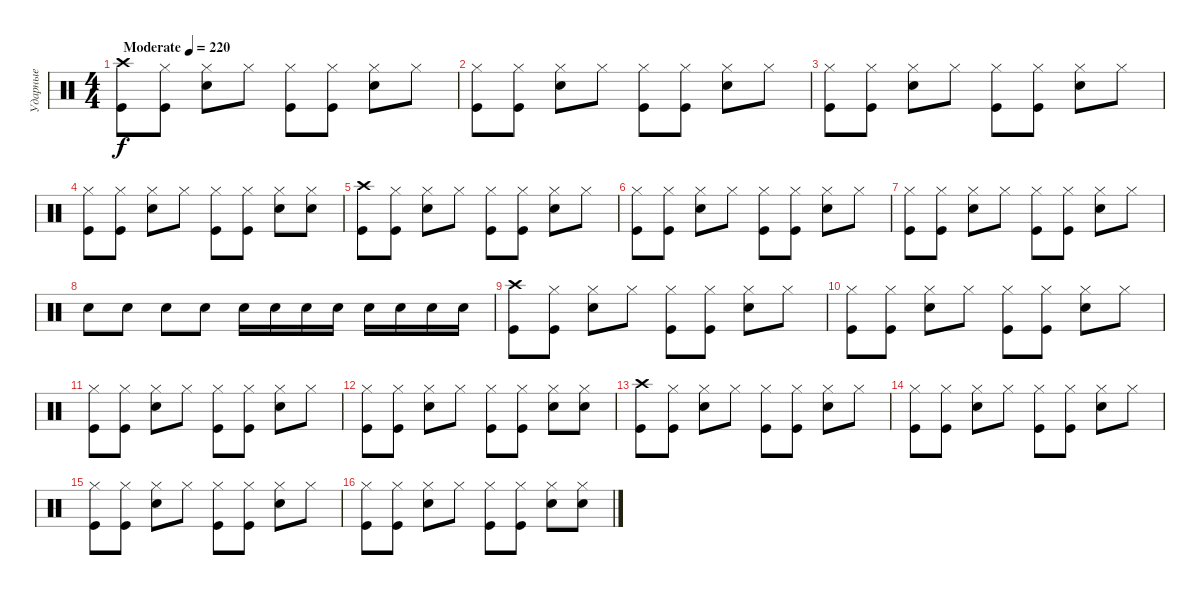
\track ("Ударные" "Ударные") {instrument percussion}
\staff {score}
\articulation defaults
\ts (4 4)
\tempo (220 "Moderate")
\clef neutral
\ks c
("Crash high (hit)" "Kick (hit)").8{dy f} ("Hi-Hat (closed)" "Kick (hit)").8 ("Hi-Hat (closed)" "Snare (hit) 2").8 "Hi-Hat (closed)".8 ("Hi-Hat (closed)" "Kick (hit)").8 ("Hi-Hat (closed)" "Kick (hit)").8 ("Hi-Hat (closed)" "Snare (hit) 2").8 "Hi-Hat (closed)".8 |
("Hi-Hat (closed)" "Kick (hit)").8 ("Hi-Hat (closed)" "Kick (hit)").8 ("Hi-Hat (closed)" "Snare (hit) 2").8 "Hi-Hat (closed)".8 ("Hi-Hat (closed)" "Kick (hit)").8 ("Hi-Hat (closed)" "Kick (hit)").8 ("Hi-Hat (closed)" "Snare (hit) 2").8 "Hi-Hat (closed)".8 |
("Hi-Hat (closed)" "Kick (hit)").8 ("Hi-Hat (closed)" "Kick (hit)").8 ("Hi-Hat (closed)" "Snare (hit) 2").8 "Hi-Hat (closed)".8 ("Hi-Hat (closed)" "Kick (hit)").8 ("Hi-Hat (closed)" "Kick (hit)").8 ("Hi-Hat (closed)" "Snare (hit) 2").8 "Hi-Hat (closed)".8 |
("Hi-Hat (closed)" "Kick (hit)").8 ("Hi-Hat (closed)" "Kick (hit)").8 ("Hi-Hat (closed)" "Snare (hit) 2").8 "Hi-Hat (closed)".8 ("Hi-Hat (closed)" "Kick (hit)").8 ("Hi-Hat (closed)" "Kick (hit)").8 ("Hi-Hat (closed)" "Snare (hit) 2").8 ("Hi-Hat (closed)" "Snare (hit) 2").8 |
("Crash high (hit)" "Kick (hit)").8 ("Hi-Hat (closed)" "Kick (hit)").8 ("Hi-Hat (closed)" "Snare (hit) 2").8 "Hi-Hat (closed)".8 ("Hi-Hat (closed)" "Kick (hit)").8 ("Hi-Hat (closed)" "Kick (hit)").8 ("Hi-Hat (closed)" "Snare (hit) 2").8 "Hi-Hat (closed)".8 |
("Hi-Hat (closed)" "Kick (hit)").8 ("Hi-Hat (closed)" "Kick (hit)").8 ("Hi-Hat (closed)" "Snare (hit) 2").8 "Hi-Hat (closed)".8 ("Hi-Hat (closed)" "Kick (hit)").8 ("Hi-Hat (closed)" "Kick (hit)").8 ("Hi-Hat (closed)" "Snare (hit) 2").8 "Hi-Hat (closed)".8 |
("Hi-Hat (closed)" "Kick (hit)").8 ("Hi-Hat (closed)" "Kick (hit)").8 ("Hi-Hat (closed)" "Snare (hit) 2").8 "Hi-Hat (closed)".8 ("Hi-Hat (closed)" "Kick (hit)").8 ("Hi-Hat (closed)" "Kick (hit)").8 ("Hi-Hat (closed)" "Snare (hit) 2").8 "Hi-Hat (closed)".8 |
"Snare (hit) 2".8 "Snare (hit) 2".8 "Snare (hit) 2".8 "Snare (hit) 2".8 "Snare (hit) 2".16 "Snare (hit) 2".16 "Snare (hit) 2".16 "Snare (hit) 2".16 "Snare (hit) 2".16 "Snare (hit) 2".16 "Snare (hit) 2".16 "Snare (hit) 2".16 |
("Crash high (hit)" "Kick (hit)").8 ("Hi-Hat (closed)" "Kick (hit)").8 ("Hi-Hat (closed)" "Snare (hit) 2").8 "Hi-Hat (closed)".8 ("Hi-Hat (closed)" "Kick (hit)").8 ("Hi-Hat (closed)" "Kick (hit)").8 ("Hi-Hat (closed)" "Snare (hit) 2").8 "Hi-Hat (closed)".8 |
("Hi-Hat (closed)" "Kick (hit)").8 ("Hi-Hat (closed)" "Kick (hit)").8 ("Hi-Hat (closed)" "Snare (hit) 2").8 "Hi-Hat (closed)".8 ("Hi-Hat (closed)" "Kick (hit)").8 ("Hi-Hat (closed)" "Kick (hit)").8 ("Hi-Hat (closed)" "Snare (hit) 2").8 "Hi-Hat (closed)".8 |
("Hi-Hat (closed)" "Kick (hit)").8 ("Hi-Hat (closed)" "Kick (hit)").8 ("Hi-Hat (closed)" "Snare (hit) 2").8 "Hi-Hat (closed)".8 ("Hi-Hat (closed)" "Kick (hit)").8 ("Hi-Hat (closed)" "Kick (hit)").8 ("Hi-Hat (closed)" "Snare (hit) 2").8 "Hi-Hat (closed)".8 |
("Hi-Hat (closed)" "Kick (hit)").8 ("Hi-Hat (closed)" "Kick (hit)").8 ("Hi-Hat (closed)" "Snare (hit) 2").8 "Hi-Hat (closed)".8 ("Hi-Hat (closed)" "Kick (hit)").8 ("Hi-Hat (closed)" "Kick (hit)").8 ("Hi-Hat (closed)" "Snare (hit) 2").8 ("Hi-Hat (closed)" "Snare (hit) 2").8 |
("Crash high (hit)" "Kick (hit)").8 ("Hi-Hat (closed)" "Kick (hit)").8 ("Hi-Hat (closed)" "Snare (hit) 2").8 "Hi-Hat (closed)".8 ("Hi-Hat (closed)" "Kick (hit)").8 ("Hi-Hat (closed)" "Kick (hit)").8 ("Hi-Hat (closed)" "Snare (hit) 2").8 "Hi-Hat (closed)".8 |
("Hi-Hat (closed)" "Kick (hit)").8 ("Hi-Hat (closed)" "Kick (hit)").8 ("Hi-Hat (closed)" "Snare (hit) 2").8 "Hi-Hat (closed)".8 ("Hi-Hat (closed)" "Kick (hit)").8 ("Hi-Hat (closed)" "Kick (hit)").8 ("Hi-Hat (closed)" "Snare (hit) 2").8 "Hi-Hat (closed)".8 |
("Hi-Hat (closed)" "Kick (hit)").8 ("Hi-Hat (closed)" "Kick (hit)").8 ("Hi-Hat (closed)" "Snare (hit) 2").8 "Hi-Hat (closed)".8 ("Hi-Hat (closed)" "Kick (hit)").8 ("Hi-Hat (closed)" "Kick (hit)").8 ("Hi-Hat (closed)" "Snare (hit) 2").8 "Hi-Hat (closed)".8 |
("Hi-Hat (closed)" "Kick (hit)").8 ("Hi-Hat (closed)" "Kick (hit)").8 ("Hi-Hat (closed)" "Snare (hit) 2").8 "Hi-Hat (closed)".8 ("Hi-Hat (closed)" "Kick (hit)").8 ("Hi-Hat (closed)" "Kick (hit)").8 ("Hi-Hat (closed)" "Snare (hit) 2").8 ("Hi-Hat (closed)" "Snare (hit) 2").8
